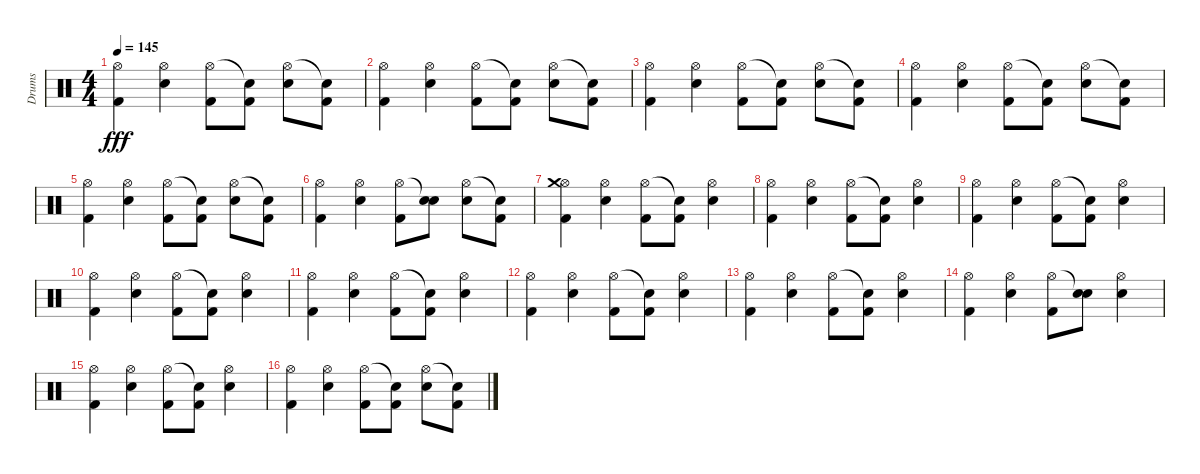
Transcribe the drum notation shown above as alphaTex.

\track ("Drums" "Drums") {instrument percussion}
\staff {score}
\articulation defaults
\ts (4 4)
\tempo 145
\clef neutral
\ks c
("Hi-Hat (open)" "Kick (hit) 2").4{dy fff} ("Hi-Hat (open)" "Electric Snare (hit)").4 ("Hi-Hat (open)" "Kick (hit) 2").8 ("Snare (hit)"{t} "Kick (hit) 2").8 ("Hi-Hat (open)" "Electric Snare (hit)").8 ("Snare (hit)"{t} "Kick (hit) 2").8 |
("Hi-Hat (open)" "Kick (hit) 2").4 ("Hi-Hat (open)" "Electric Snare (hit)").4 ("Hi-Hat (open)" "Kick (hit) 2").8 ("Snare (hit)"{t} "Kick (hit) 2").8 ("Hi-Hat (open)" "Electric Snare (hit)").8 ("Snare (hit)"{t} "Kick (hit) 2").8 |
("Hi-Hat (open)" "Kick (hit) 2").4 ("Hi-Hat (open)" "Electric Snare (hit)").4 ("Hi-Hat (open)" "Kick (hit) 2").8 ("Snare (hit)"{t} "Kick (hit) 2").8 ("Hi-Hat (open)" "Electric Snare (hit)").8 ("Snare (hit)"{t} "Kick (hit) 2").8 |
("Hi-Hat (open)" "Kick (hit) 2").4 ("Hi-Hat (open)" "Electric Snare (hit)").4 ("Hi-Hat (open)" "Kick (hit) 2").8 ("Snare (hit)"{t} "Kick (hit) 2").8 ("Hi-Hat (open)" "Electric Snare (hit)").8 ("Snare (hit)"{t} "Kick (hit) 2").8 |
("Hi-Hat (open)" "Kick (hit) 2").4 ("Hi-Hat (open)" "Electric Snare (hit)").4 ("Hi-Hat (open)" "Kick (hit) 2").8 ("Snare (hit)"{t} "Kick (hit) 2").8 ("Hi-Hat (open)" "Electric Snare (hit)").8 ("Snare (hit)"{t} "Kick (hit) 2").8 |
("Hi-Hat (open)" "Kick (hit) 2").4 ("Hi-Hat (open)" "Electric Snare (hit)").4 ("Hi-Hat (open)" "Kick (hit) 2").8 ("Snare (hit)"{t} "Electric Snare (hit)").8 ("Hi-Hat (open)" "Electric Snare (hit)").8 ("Snare (hit)"{t} "Kick (hit) 2").8 |
("Hi-Hat (open)" "Kick (hit) 2" "Crash medium (hit)").4 ("Hi-Hat (open)" "Electric Snare (hit)").4 ("Hi-Hat (open)" "Kick (hit) 2").8 ("Snare (hit)"{t} "Kick (hit) 2").8 ("Hi-Hat (open)" "Electric Snare (hit)").4 |
("Hi-Hat (open)" "Kick (hit) 2").4 ("Hi-Hat (open)" "Electric Snare (hit)").4 ("Hi-Hat (open)" "Kick (hit) 2").8 ("Snare (hit)"{t} "Kick (hit) 2").8 ("Hi-Hat (open)" "Electric Snare (hit)").4 |
("Hi-Hat (open)" "Kick (hit) 2").4 ("Hi-Hat (open)" "Electric Snare (hit)").4 ("Hi-Hat (open)" "Kick (hit) 2").8 ("Snare (hit)"{t} "Kick (hit) 2").8 ("Hi-Hat (open)" "Electric Snare (hit)").4 |
("Hi-Hat (open)" "Kick (hit) 2").4 ("Hi-Hat (open)" "Electric Snare (hit)").4 ("Hi-Hat (open)" "Kick (hit) 2").8 ("Snare (hit)"{t} "Kick (hit) 2").8 ("Hi-Hat (open)" "Electric Snare (hit)").4 |
("Hi-Hat (open)" "Kick (hit) 2").4 ("Hi-Hat (open)" "Electric Snare (hit)").4 ("Hi-Hat (open)" "Kick (hit) 2").8 ("Snare (hit)"{t} "Kick (hit) 2").8 ("Hi-Hat (open)" "Electric Snare (hit)").4 |
("Hi-Hat (open)" "Kick (hit) 2").4 ("Hi-Hat (open)" "Electric Snare (hit)").4 ("Hi-Hat (open)" "Kick (hit) 2").8 ("Snare (hit)"{t} "Kick (hit) 2").8 ("Hi-Hat (open)" "Electric Snare (hit)").4 |
("Hi-Hat (open)" "Kick (hit) 2").4 ("Hi-Hat (open)" "Electric Snare (hit)").4 ("Hi-Hat (open)" "Kick (hit) 2").8 ("Snare (hit)"{t} "Kick (hit) 2").8 ("Hi-Hat (open)" "Electric Snare (hit)").4 |
("Hi-Hat (open)" "Kick (hit) 2").4 ("Hi-Hat (open)" "Electric Snare (hit)").4 ("Hi-Hat (open)" "Kick (hit) 2").8 ("Snare (hit)"{t} "Electric Snare (hit)").8 ("Hi-Hat (open)" "Electric Snare (hit)").4 |
("Hi-Hat (open)" "Kick (hit) 2").4 ("Hi-Hat (open)" "Electric Snare (hit)").4 ("Hi-Hat (open)" "Kick (hit) 2").8 ("Snare (hit)"{t} "Kick (hit) 2").8 ("Hi-Hat (open)" "Electric Snare (hit)").4 |
("Hi-Hat (open)" "Kick (hit) 2").4 ("Hi-Hat (open)" "Electric Snare (hit)").4 ("Hi-Hat (open)" "Kick (hit) 2").8 ("Snare (hit)"{t} "Kick (hit) 2").8 ("Hi-Hat (open)" "Electric Snare (hit)").8 ("Snare (hit)"{t} "Kick (hit) 2").8
